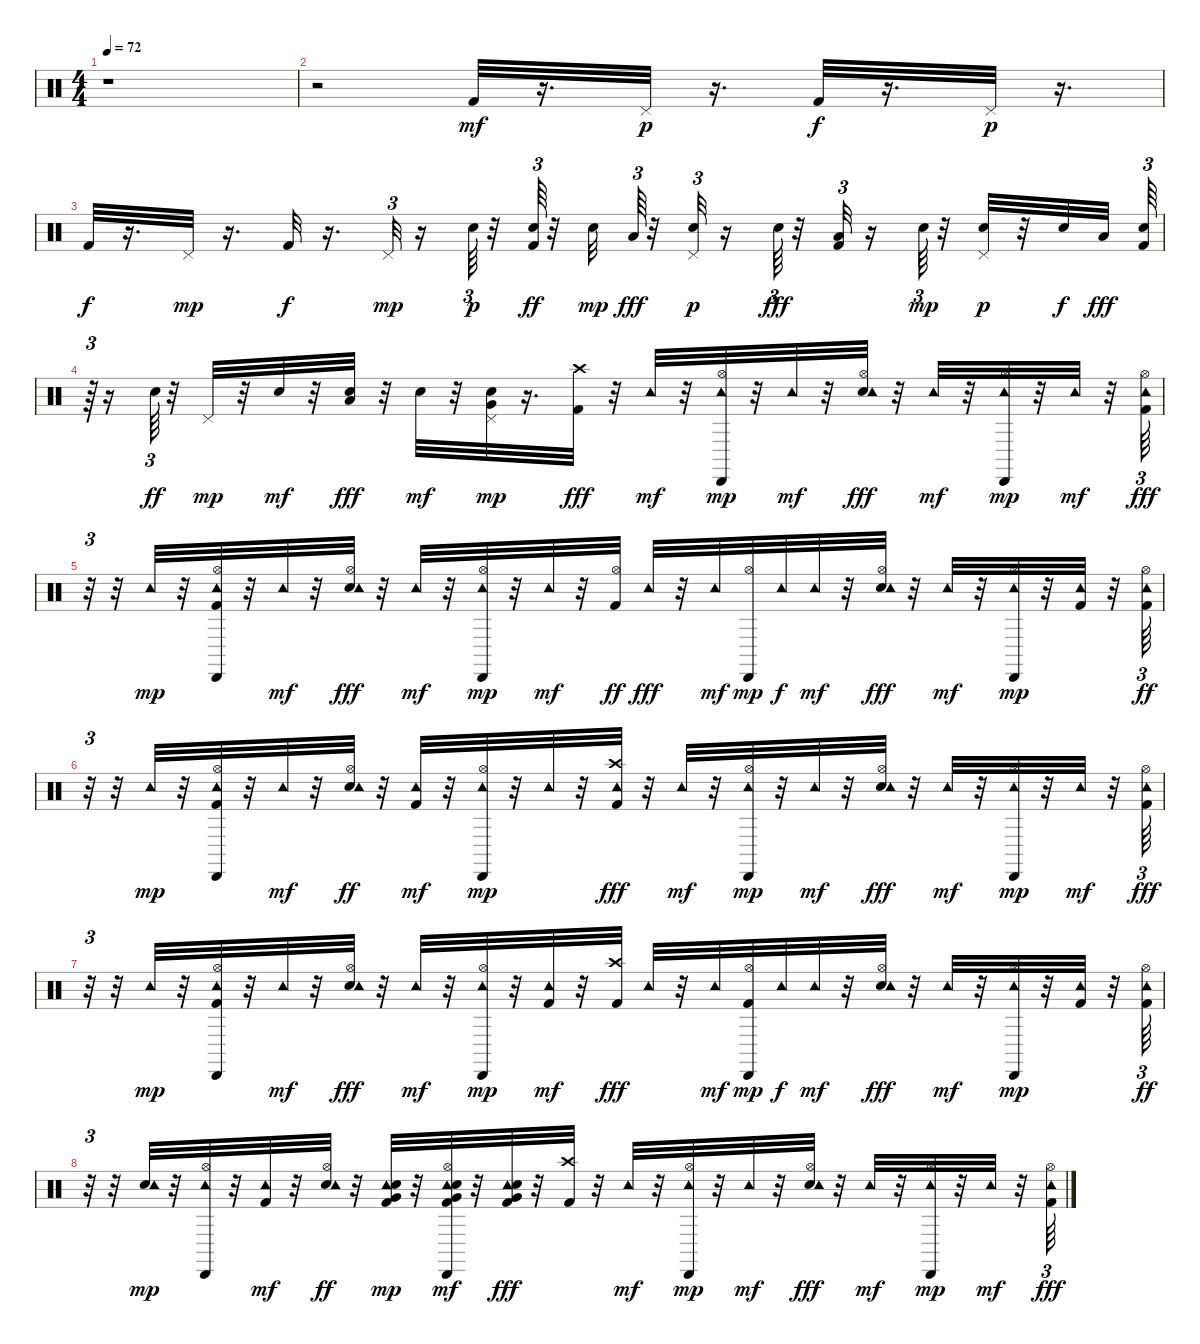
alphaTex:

\track "" {instrument percussion}
\staff {score}
\articulation defaults
\ts (4 4)
\tempo 72
\clef neutral
\ks c
r.1{dy fff} |
r.2 "Kick (hit) 2".32{dy mf} r.16{d} "Pedal Hi-Hat (hit)".32{dy p} r.16{d} "Kick (hit) 2".32{dy f} r.16{d} "Pedal Hi-Hat (hit)".32{dy p} r.16{d} |
"Kick (hit) 2".32{dy f} r.16{d} "Pedal Hi-Hat (hit)".32{dy mp} r.16{d} "Kick (hit) 2".32{dy f} r.16{d} "Pedal Hi-Hat (hit)".32{tu (3 2) dy mp} r.16 "Electric Snare (hit)".64{tu (3 2) dy p} r.32 ("Kick (hit) 2" "Electric Snare (hit)").64{tu (3 2) dy ff} r.32 "Electric Snare (hit)".32{dy mp} "Low Tom (hit)".64{tu (3 2) dy fff} r.32 ("Electric Snare (hit)" "Pedal Hi-Hat (hit)").32{tu (3 2) dy p} r.16 "Electric Snare (hit)".64{tu (3 2) dy fff} r.32 ("Kick (hit) 2" "Low Tom (hit)").32{tu (3 2)} r.16 "Electric Snare (hit)".64{tu (3 2) dy mp} r.32 ("Pedal Hi-Hat (hit)" "Electric Snare (hit)").32{dy p} r.32 "Electric Snare (hit)".32{dy f} "Low Tom (hit)".32{dy fff beam splitsecondary} ("Kick (hit) 2" "Electric Snare (hit)").64{tu (3 2)} |
r.64{tu (3 2)} r.16 "Electric Snare (hit)".64{tu (3 2) dy ff} r.32 "Pedal Hi-Hat (hit)".32{dy mp} r.32 "Electric Snare (hit)".32{dy mf} r.32 ("Electric Snare (hit)" "Low Tom (hit)").32{dy fff} r.32 "Electric Snare (hit)".32{dy mf} r.32 ("Electric Snare (hit)" "Very Low Tom (hit)" "Pedal Hi-Hat (hit)").32{dy mp} r.16{d} ("Kick (hit) 2" "Crash high (hit)").32{dy fff} r.32 "Tambourine (hit)".32{dy mf} r.32 ("Hi-Hat (open)" "Cabasa (hit)" "Tambourine (hit)").32{dy mp} r.32 "Tambourine (hit)".32{dy mf} r.32 ("Electric Snare (hit)" "Hi-Hat (open)" "Tambourine (hit)").32{dy fff} r.32 "Tambourine (hit)".32{dy mf} r.32 ("Hi-Hat (open)" "Cabasa (hit)" "Tambourine (hit)").32{dy mp} r.32 "Tambourine (hit)".32{dy mf} r.32 ("Kick (hit) 2" "Hi-Hat (open)" "Tambourine (hit)").64{tu (3 2) dy fff} |
r.32{tu (3 2)} r.32 "Tambourine (hit)".32{dy mp} r.32 ("Kick (hit) 2" "Hi-Hat (open)" "Cabasa (hit)" "Tambourine (hit)").32 r.32 "Tambourine (hit)".32{dy mf} r.32 ("Electric Snare (hit)" "Hi-Hat (open)" "Tambourine (hit)").32{dy fff} r.32 "Tambourine (hit)".32{dy mf} r.32 ("Hi-Hat (open)" "Cabasa (hit)" "Tambourine (hit)").32{dy mp} r.32 "Tambourine (hit)".32{dy mf} r.32 ("Kick (hit) 2" "Hi-Hat (open)").32{dy ff} "Tambourine (hit)".32{dy fff} r.32 "Tambourine (hit)".32{dy mf} ("Hi-Hat (open)" "Cabasa (hit)").32{dy mp} "Tambourine (hit)".32{dy f} "Tambourine (hit)".32{dy mf} r.32 ("Electric Snare (hit)" "Hi-Hat (open)" "Tambourine (hit)").32{dy fff} r.32 "Tambourine (hit)".32{dy mf} r.32 ("Hi-Hat (open)" "Cabasa (hit)" "Tambourine (hit)").32{dy mp} r.32 ("Kick (hit) 2" "Tambourine (hit)").32 r.32 ("Kick (hit) 2" "Hi-Hat (open)" "Tambourine (hit)").64{tu (3 2) dy ff} |
r.32{tu (3 2)} r.32 "Tambourine (hit)".32{dy mp} r.32 ("Kick (hit) 2" "Hi-Hat (open)" "Cabasa (hit)" "Tambourine (hit)").32 r.32 "Tambourine (hit)".32{dy mf} r.32 ("Electric Snare (hit)" "Hi-Hat (open)" "Tambourine (hit)").32{dy ff} r.32 ("Tambourine (hit)" "Kick (hit) 2").32{dy mf} r.32 ("Tambourine (hit)" "Hi-Hat (open)" "Cabasa (hit)").32{dy mp} r.32 "Tambourine (hit)".32 r.32 ("Kick (hit) 2" "Crash high (hit)" "Tambourine (hit)").32{dy fff} r.32 "Tambourine (hit)".32{dy mf} r.32 ("Hi-Hat (open)" "Cabasa (hit)" "Tambourine (hit)").32{dy mp} r.32 "Tambourine (hit)".32{dy mf} r.32 ("Electric Snare (hit)" "Hi-Hat (open)" "Tambourine (hit)").32{dy fff} r.32 "Tambourine (hit)".32{dy mf} r.32 ("Hi-Hat (open)" "Cabasa (hit)" "Tambourine (hit)").32{dy mp} r.32 "Tambourine (hit)".32{dy mf} r.32 ("Kick (hit) 2" "Hi-Hat (open)" "Tambourine (hit)").64{tu (3 2) dy fff} |
r.32{tu (3 2)} r.32 "Tambourine (hit)".32{dy mp} r.32 ("Kick (hit) 2" "Hi-Hat (open)" "Cabasa (hit)" "Tambourine (hit)").32 r.32 "Tambourine (hit)".32{dy mf} r.32 ("Electric Snare (hit)" "Hi-Hat (open)" "Tambourine (hit)").32{dy fff} r.32 "Tambourine (hit)".32{dy mf} r.32 ("Hi-Hat (open)" "Cabasa (hit)" "Tambourine (hit)").32{dy mp} r.32 ("Kick (hit) 2" "Tambourine (hit)").32{dy mf} r.32 ("Kick (hit) 2" "Crash high (hit)").32{dy fff} "Tambourine (hit)".32 r.32 "Tambourine (hit)".32{dy mf} ("Kick (hit) 2" "Hi-Hat (open)" "Cabasa (hit)").32{dy mp} "Tambourine (hit)".32{dy f} "Tambourine (hit)".32{dy mf} r.32 ("Electric Snare (hit)" "Hi-Hat (open)" "Tambourine (hit)").32{dy fff} r.32 "Tambourine (hit)".32{dy mf} r.32 ("Hi-Hat (open)" "Cabasa (hit)" "Tambourine (hit)").32{dy mp} r.32 ("Kick (hit) 2" "Tambourine (hit)").32 r.32 ("Kick (hit) 2" "Hi-Hat (open)" "Tambourine (hit)").64{tu (3 2) dy ff} |
r.32{tu (3 2)} r.32 ("Electric Snare (hit)" "Tambourine (hit)").32{dy mp} r.32 ("Hi-Hat (open)" "Cabasa (hit)" "Tambourine (hit)").32 r.32 ("Kick (hit) 2" "Tambourine (hit)").32{dy mf} r.32 ("Electric Snare (hit)" "Hi-Hat (open)" "Tambourine (hit)").32{dy ff} r.32 ("Kick (hit) 2" "Very Low Tom (hit)" "Tambourine (hit)" "Electric Snare (hit)").32{dy mp} r.32 ("Tambourine (hit)" "Very Low Tom (hit)" "Hi-Hat (open)" "Cabasa (hit)" "Kick (hit) 2" "Electric Snare (hit)").32{dy mf} r.32 ("Tambourine (hit)" "Kick (hit) 2" "Electric Snare (hit)" "Very Low Tom (hit)").32{dy fff} r.32 ("Kick (hit) 2" "Crash high (hit)").32 r.32 "Tambourine (hit)".32{dy mf} r.32 ("Hi-Hat (open)" "Cabasa (hit)" "Tambourine (hit)").32{dy mp} r.32 "Tambourine (hit)".32{dy mf} r.32 ("Electric Snare (hit)" "Hi-Hat (open)" "Tambourine (hit)").32{dy fff} r.32 "Tambourine (hit)".32{dy mf} r.32 ("Hi-Hat (open)" "Cabasa (hit)" "Tambourine (hit)").32{dy mp} r.32 "Tambourine (hit)".32{dy mf} r.32 ("Kick (hit) 2" "Hi-Hat (open)" "Tambourine (hit)").64{tu (3 2) dy fff}
